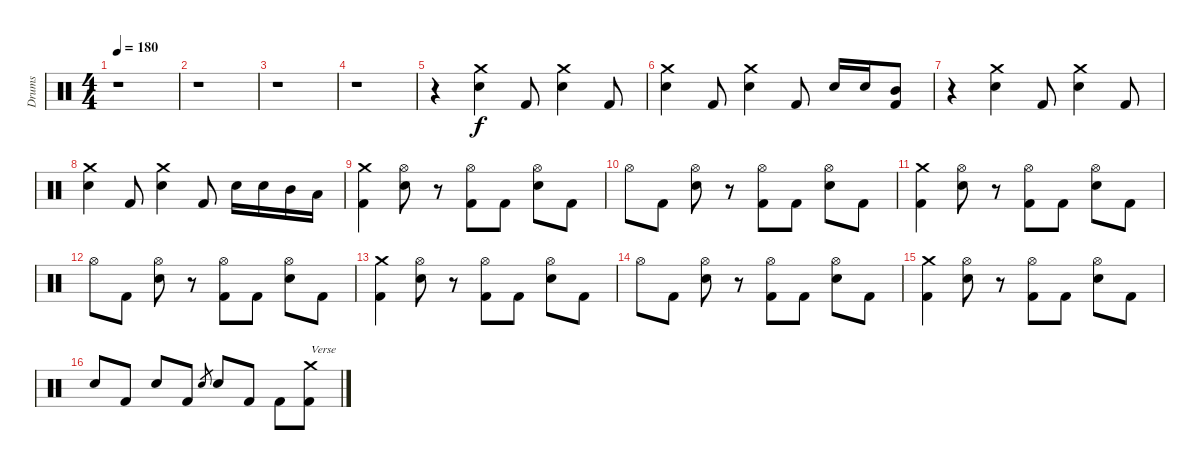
\track ("Drums" "Drums") {instrument percussion}
\staff {score}
\articulation defaults
\ts (4 4)
\tempo 180
\clef neutral
\ks c
r.1{dy f} |
r.1 |
r.1 |
r.1 |
r.4 ("Crash medium (hit)" "Electric Snare (hit)").4 "Kick (hit) 2".8 ("Crash medium (hit)" "Electric Snare (hit)").4 "Kick (hit) 2".8 |
("Crash medium (hit)" "Electric Snare (hit)").4 "Kick (hit) 2".8 ("Crash medium (hit)" "Electric Snare (hit)").4 "Kick (hit) 2".8 "Electric Snare (hit)".16 "Electric Snare (hit)".16 ("Mid Tom (hit)" "Kick (hit) 2").8 |
r.4 ("Crash medium (hit)" "Electric Snare (hit)").4 "Kick (hit) 2".8 ("Crash medium (hit)" "Electric Snare (hit)").4 "Kick (hit) 2".8 |
("Crash medium (hit)" "Electric Snare (hit)").4 "Kick (hit) 2".8 ("Crash medium (hit)" "Electric Snare (hit)").4 "Kick (hit) 2".8 "Electric Snare (hit)".16 "Electric Snare (hit)".16 "Mid Tom (hit)".16 "Low Tom (hit)".16 |
("Crash medium (hit)" "Kick (hit) 2").4 ("Hi-Hat (open)" "Electric Snare (hit)").8 r.8 ("Hi-Hat (open)" "Kick (hit) 2").8 "Kick (hit) 2".8 ("Hi-Hat (open)" "Electric Snare (hit)").8 "Kick (hit) 2".8 |
"Hi-Hat (open)".8 "Kick (hit) 2".8 ("Hi-Hat (open)" "Electric Snare (hit)").8 r.8 ("Hi-Hat (open)" "Kick (hit) 2").8 "Kick (hit) 2".8 ("Hi-Hat (open)" "Electric Snare (hit)").8 "Kick (hit) 2".8 |
("Crash medium (hit)" "Kick (hit) 2").4 ("Hi-Hat (open)" "Electric Snare (hit)").8 r.8 ("Hi-Hat (open)" "Kick (hit) 2").8 "Kick (hit) 2".8 ("Hi-Hat (open)" "Electric Snare (hit)").8 "Kick (hit) 2".8 |
"Hi-Hat (open)".8 "Kick (hit) 2".8 ("Hi-Hat (open)" "Electric Snare (hit)").8 r.8 ("Hi-Hat (open)" "Kick (hit) 2").8 "Kick (hit) 2".8 ("Hi-Hat (open)" "Electric Snare (hit)").8 "Kick (hit) 2".8 |
("Crash medium (hit)" "Kick (hit) 2").4 ("Hi-Hat (open)" "Electric Snare (hit)").8 r.8 ("Hi-Hat (open)" "Kick (hit) 2").8 "Kick (hit) 2".8 ("Hi-Hat (open)" "Electric Snare (hit)").8 "Kick (hit) 2".8 |
"Hi-Hat (open)".8 "Kick (hit) 2".8 ("Hi-Hat (open)" "Electric Snare (hit)").8 r.8 ("Hi-Hat (open)" "Kick (hit) 2").8 "Kick (hit) 2".8 ("Hi-Hat (open)" "Electric Snare (hit)").8 "Kick (hit) 2".8 |
("Crash medium (hit)" "Kick (hit) 2").4 ("Hi-Hat (open)" "Electric Snare (hit)").8 r.8 ("Hi-Hat (open)" "Kick (hit) 2").8 "Kick (hit) 2".8 ("Hi-Hat (open)" "Electric Snare (hit)").8 "Kick (hit) 2".8 |
"Electric Snare (hit)".8 "Kick (hit) 2".8 "Electric Snare (hit)".8 "Kick (hit) 2".8 "Electric Snare (hit)".8{gr} "Electric Snare (hit)".8 "Kick (hit) 2".8 "Kick (hit) 2".8 ("Crash medium (hit)" "Kick (hit) 2").8{txt "Verse"}
